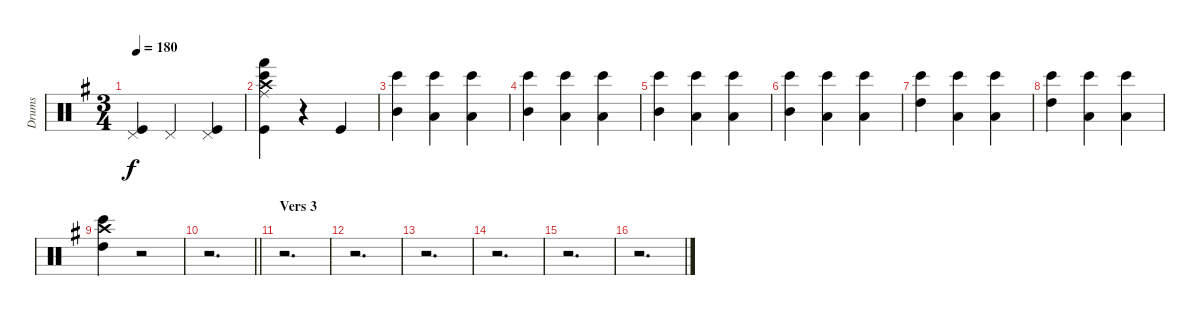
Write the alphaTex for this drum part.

\track ("Drums" "Drums") {instrument percussion bank 24}
\staff {score}
\articulation defaults
\ts (3 4)
\tempo 180
\clef neutral
\ks eminor
("Pedal Hi-Hat (hit)" "Kick (hit)").4{dy f} "Pedal Hi-Hat (hit)".4 ("Pedal Hi-Hat (hit)" "Kick (hit)").4 |
("Crash high (hit)" "Ride (middle)" "Bongo High (hit)" "Hand (hit)" "Kick (hit)").4 r.4 "Kick (hit)".4 |
("Bongo High (hit)" "Mid Tom (hit)").4 ("Bongo High (hit)" "Low Tom (hit)").4 ("Bongo High (hit)" "Low Tom (hit)").4 |
("Bongo High (hit)" "Mid Tom (hit)").4 ("Bongo High (hit)" "Low Tom (hit)").4 ("Bongo High (hit)" "Low Tom (hit)").4 |
("Bongo High (hit)" "Mid Tom (hit)").4 ("Bongo High (hit)" "Low Tom (hit)").4 ("Bongo High (hit)" "Low Tom (hit)").4 |
("Bongo High (hit)" "Mid Tom (hit)").4 ("Bongo High (hit)" "Low Tom (hit)").4 ("Bongo High (hit)" "Low Tom (hit)").4 |
("Bongo High (hit)" "High Tom (hit)").4 ("Bongo High (hit)" "Low Tom (hit)").4 ("Bongo High (hit)" "Low Tom (hit)").4 |
("Bongo High (hit)" "High Tom (hit)").4 ("Bongo High (hit)" "Low Tom (hit)").4 ("Bongo High (hit)" "Low Tom (hit)").4 |
("Crash high (hit)" "Bongo High (hit)" "High Tom (hit)").4 r.2 |
\barLineRight lightlight
r.2{d} |
\section ("" "Vers 3")
r.2{d} |
r.2{d} |
r.2{d} |
r.2{d} |
r.2{d} |
r.2{d}
